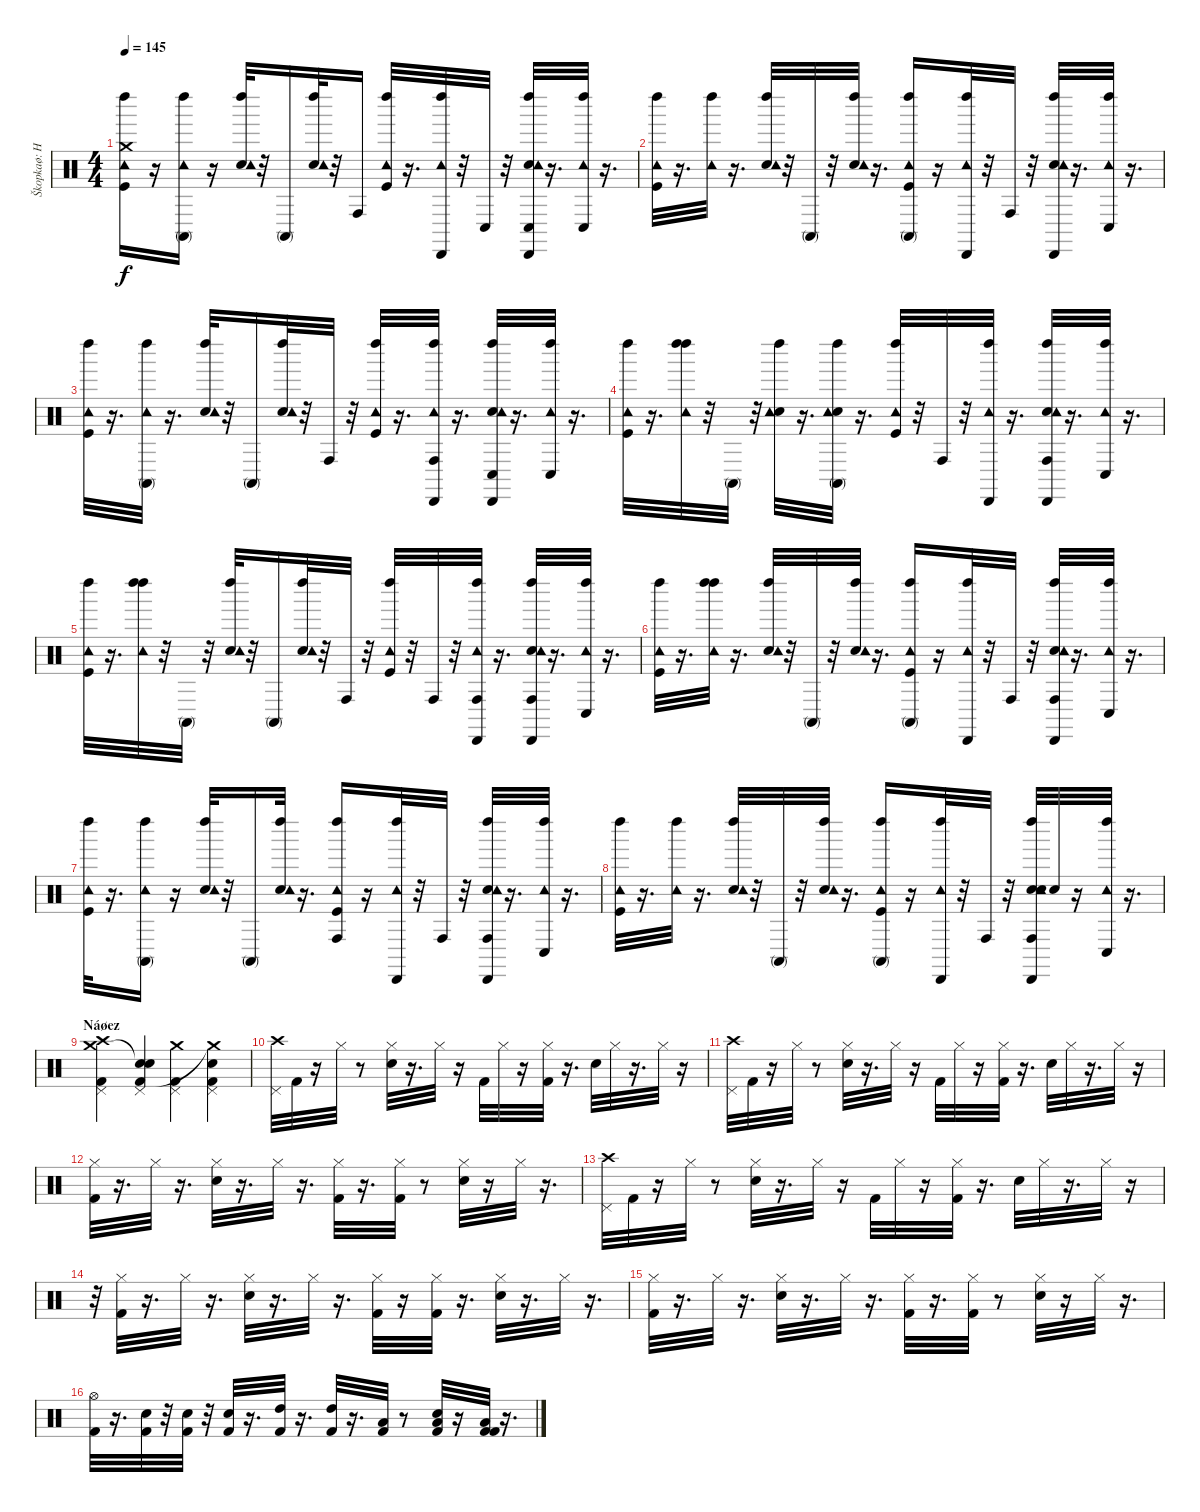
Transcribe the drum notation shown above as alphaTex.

\track ("Škopkaø: Hurvajs" "Škopkaø: H") {instrument percussion}
\staff {score}
\articulation defaults
\ts (4 4)
\tempo 145
\clef neutral
\ks c
("Crash medium (hit)" "Kick (hit)" "Tambourine (hit)" "Left Maraca (hit)").16{dy f volume 5} r.16 ("Tambourine (hit)" "Conga high (mute)" "Left Maraca (hit)").16 r.16 ("Snare (hit) 2" "Tambourine (hit)" "Left Maraca (hit)").32 r.32 "Conga high (mute)".16 ("Snare (hit) 2" "Tambourine (hit)" "Left Maraca (hit)").32 r.32 "Conga high (hit)".16 ("Kick (hit)" "Tambourine (hit)" "Left Maraca (hit)").32 r.16{d} ("Tambourine (hit)" "Cabasa (hit)" "Left Maraca (hit)").32 r.32 "Conga low (hit)".32 r.32 ("Snare (hit) 2" "Tambourine (hit)" "Conga low (hit)" "Cabasa (hit)" "Left Maraca (hit)").32 r.16{d} ("Tambourine (hit)" "Conga low (hit)" "Left Maraca (hit)").32 r.16{d} |
("Kick (hit)" "Tambourine (hit)" "Left Maraca (hit)").32 r.16{d} ("Tambourine (hit)" "Left Maraca (hit)").32 r.16{d} ("Snare (hit) 2" "Tambourine (hit)" "Left Maraca (hit)").32 r.32 "Conga high (mute)".32 r.32 ("Snare (hit) 2" "Tambourine (hit)" "Left Maraca (hit)").32 r.16{d} ("Kick (hit)" "Tambourine (hit)" "Conga high (mute)" "Left Maraca (hit)").16 r.16 ("Tambourine (hit)" "Cabasa (hit)" "Left Maraca (hit)").32 r.32 "Conga high (hit)".32 r.32 ("Snare (hit) 2" "Tambourine (hit)" "Cabasa (hit)" "Left Maraca (hit)").32 r.16{d} ("Tambourine (hit)" "Conga low (hit)" "Left Maraca (hit)").32 r.16{d} |
("Kick (hit)" "Tambourine (hit)" "Left Maraca (hit)").32 r.16{d} ("Tambourine (hit)" "Conga high (mute)" "Left Maraca (hit)").32 r.16{d} ("Snare (hit) 2" "Tambourine (hit)" "Left Maraca (hit)").32 r.32 "Conga high (mute)".16 ("Snare (hit) 2" "Tambourine (hit)" "Left Maraca (hit)").32 r.32 "Conga high (hit)".32 r.32 ("Kick (hit)" "Tambourine (hit)" "Left Maraca (hit)").32 r.16{d} ("Tambourine (hit)" "Conga high (hit)" "Cabasa (hit)" "Left Maraca (hit)").32 r.16{d} ("Snare (hit) 2" "Tambourine (hit)" "Conga low (hit)" "Cabasa (hit)" "Left Maraca (hit)").32 r.16{d} ("Tambourine (hit)" "Conga low (hit)" "Left Maraca (hit)").32 r.16{d} |
("Kick (hit)" "Tambourine (hit)" "Left Maraca (hit)").32 r.16{d} ("Tambourine (hit)" "Left Maraca (hit)" "Left Maraca (hit)").32 r.32 "Conga high (mute)".32 r.32 ("Snare (hit) 2" "Tambourine (hit)" "Left Maraca (hit)").32 r.16{d} ("Snare (hit) 2" "Tambourine (hit)" "Conga high (mute)" "Left Maraca (hit)").32 r.16{d} ("Kick (hit)" "Tambourine (hit)" "Left Maraca (hit)").32 r.32 "Conga high (hit)".32 r.32 ("Tambourine (hit)" "Cabasa (hit)" "Left Maraca (hit)").32 r.16{d} ("Snare (hit) 2" "Tambourine (hit)" "Conga high (hit)" "Cabasa (hit)" "Left Maraca (hit)").32 r.16{d} ("Tambourine (hit)" "Conga low (hit)" "Left Maraca (hit)").32 r.16{d} |
("Kick (hit)" "Tambourine (hit)" "Left Maraca (hit)").32{volume 3} r.16{d} ("Tambourine (hit)" "Left Maraca (hit)" "Left Maraca (hit)").32 r.32 "Conga high (mute)".32 r.32 ("Snare (hit) 2" "Tambourine (hit)" "Left Maraca (hit)").32 r.32 "Conga high (mute)".16 ("Snare (hit) 2" "Tambourine (hit)" "Left Maraca (hit)").32 r.32 "Conga high (hit)".32 r.32 ("Kick (hit)" "Tambourine (hit)" "Left Maraca (hit)").32 r.32 "Conga high (hit)".32 r.32 ("Tambourine (hit)" "Conga high (hit)" "Cabasa (hit)" "Left Maraca (hit)").32 r.16{d} ("Snare (hit) 2" "Tambourine (hit)" "Conga high (hit)" "Cabasa (hit)" "Left Maraca (hit)").32 r.16{d} ("Tambourine (hit)" "Conga low (hit)" "Left Maraca (hit)").32 r.16{d} |
("Kick (hit)" "Tambourine (hit)" "Left Maraca (hit)").32 r.16{d} ("Tambourine (hit)" "Left Maraca (hit)" "Left Maraca (hit)").32 r.16{d} ("Snare (hit) 2" "Tambourine (hit)" "Left Maraca (hit)").32 r.32 "Conga high (mute)".32 r.32 ("Snare (hit) 2" "Tambourine (hit)" "Left Maraca (hit)").32 r.16{d} ("Kick (hit)" "Tambourine (hit)" "Conga high (mute)" "Left Maraca (hit)").16 r.16 ("Tambourine (hit)" "Cabasa (hit)" "Left Maraca (hit)").32 r.32 "Conga high (hit)".32 r.32 ("Snare (hit) 2" "Tambourine (hit)" "Conga high (hit)" "Cabasa (hit)" "Left Maraca (hit)").32 r.16{d} ("Tambourine (hit)" "Conga low (hit)" "Left Maraca (hit)").32 r.16{d} |
("Kick (hit)" "Tambourine (hit)" "Left Maraca (hit)").32 r.16{d} ("Tambourine (hit)" "Conga high (mute)" "Left Maraca (hit)").16 r.16 ("Snare (hit) 2" "Tambourine (hit)" "Left Maraca (hit)").32 r.32 "Conga high (mute)".16 ("Snare (hit) 2" "Tambourine (hit)" "Left Maraca (hit)").32 r.16{d} ("Kick (hit)" "Tambourine (hit)" "Conga high (hit)" "Left Maraca (hit)").16 r.16 ("Tambourine (hit)" "Cabasa (hit)" "Left Maraca (hit)").32 r.32 "Conga high (hit)".32 r.32 ("Snare (hit) 2" "Tambourine (hit)" "Conga high (hit)" "Cabasa (hit)" "Left Maraca (hit)").32 r.16{d} ("Tambourine (hit)" "Conga low (hit)" "Left Maraca (hit)").32 r.16{d} |
("Kick (hit)" "Tambourine (hit)" "Left Maraca (hit)").32 r.16{d} ("Tambourine (hit)" "Left Maraca (hit)").32 r.16{d} ("Snare (hit) 2" "Tambourine (hit)" "Left Maraca (hit)").32 r.32 "Conga high (mute)".32 r.32 ("Snare (hit) 2" "Tambourine (hit)" "Left Maraca (hit)").32 r.16{d} ("Kick (hit)" "Tambourine (hit)" "Conga high (mute)" "Left Maraca (hit)").16 r.16 ("Tambourine (hit)" "Cabasa (hit)" "Left Maraca (hit)").32 r.32 "Conga high (hit)".32 r.32 ("Snare (hit) 2" "Snare (hit) 2" "Tambourine (hit)" "Conga high (hit)" "Cabasa (hit)" "Left Maraca (hit)").32 "Snare (hit) 2".32 r.16 ("Tambourine (hit)" "Conga low (hit)" "Left Maraca (hit)").32 r.16{d} |
\section ("" "Náøez")
("Crash medium (hit)" "Kick (hit) 2" "Pedal Hi-Hat (hit)" "Crash high (hit)").4{volume 16} ("Electric Snare (hit)"{t} "Pedal Hi-Hat (hit)" "Electric Snare (hit)" "Kick (hit) 2").4 ("Pedal Hi-Hat (hit)" "Kick (hit) 2" "Crash medium (hit)").4 ("Pedal Hi-Hat (hit)" "Electric Snare (hit)" "Kick (hit) 2" "Crash medium (hit)"{t}).4 |
("Pedal Hi-Hat (hit)" "Crash high (hit)").32 "Kick (hit) 2".32 r.16 "Hi-Hat (closed)".32 r.8 ("Hi-Hat (closed)" "Snare (hit) 2").32 r.16{d} "Hi-Hat (closed)".32 r.16 "Kick (hit) 2".32 "Hi-Hat (closed)".32 r.16 ("Kick (hit) 2" "Hi-Hat (closed)").32 r.16{d} "Snare (hit) 2".32 "Hi-Hat (closed)".32 r.16{d} "Hi-Hat (closed)".32 r.16 |
("Pedal Hi-Hat (hit)" "Crash high (hit)").32 "Kick (hit) 2".32 r.16 "Hi-Hat (closed)".32 r.8 ("Hi-Hat (closed)" "Snare (hit) 2").32 r.16{d} "Hi-Hat (closed)".32 r.16 "Kick (hit) 2".32 "Hi-Hat (closed)".32 r.16 ("Kick (hit) 2" "Hi-Hat (closed)").32 r.16{d} "Snare (hit) 2".32 "Hi-Hat (closed)".32 r.16{d} "Hi-Hat (closed)".32 r.16 |
("Kick (hit) 2" "Hi-Hat (closed)").32 r.16{d} "Hi-Hat (closed)".32 r.16{d} ("Hi-Hat (closed)" "Snare (hit) 2").32 r.16{d} "Hi-Hat (closed)".32 r.16{d} ("Kick (hit) 2" "Hi-Hat (closed)").32 r.16{d} ("Kick (hit) 2" "Hi-Hat (closed)").32 r.8 ("Snare (hit) 2" "Hi-Hat (closed)").32 r.16 "Hi-Hat (closed)".32 r.16{d} |
("Pedal Hi-Hat (hit)" "Crash high (hit)").32 "Kick (hit) 2".32 r.16 "Hi-Hat (closed)".32 r.8 ("Hi-Hat (closed)" "Snare (hit) 2").32 r.16{d} "Hi-Hat (closed)".32 r.16 "Kick (hit) 2".32 "Hi-Hat (closed)".32 r.16 ("Kick (hit) 2" "Hi-Hat (closed)").32 r.16{d} "Snare (hit) 2".32 "Hi-Hat (closed)".32 r.16{d} "Hi-Hat (closed)".32 r.16 |
r.32 ("Kick (hit) 2" "Hi-Hat (closed)").32 r.16{d} "Hi-Hat (closed)".32 r.16{d} ("Hi-Hat (closed)" "Snare (hit) 2").32 r.16{d} "Hi-Hat (closed)".32 r.16{d} ("Kick (hit) 2" "Hi-Hat (closed)").32 r.16 ("Kick (hit) 2" "Hi-Hat (closed)").32 r.16{d} ("Hi-Hat (closed)" "Snare (hit) 2").32 r.16{d} "Hi-Hat (closed)".32 r.16{d} |
("Kick (hit) 2" "Hi-Hat (closed)").32 r.16{d} "Hi-Hat (closed)".32 r.16{d} ("Hi-Hat (closed)" "Snare (hit) 2").32 r.16{d} "Hi-Hat (closed)".32 r.16{d} ("Kick (hit) 2" "Hi-Hat (closed)").32 r.16{d} ("Kick (hit) 2" "Hi-Hat (closed)").32 r.8 ("Snare (hit) 2" "Hi-Hat (closed)").32 r.16 "Hi-Hat (closed)".32 r.16{d} |
("Hi-Hat (open)" "Kick (hit) 2").32 r.16{d} ("Snare (hit) 2" "Kick (hit) 2").32 r.32 ("Snare (hit) 2" "Kick (hit) 2").32 r.32 ("Snare (hit) 2" "Kick (hit) 2").32 r.16{d} ("High Tom (hit)" "Kick (hit) 2").32 r.16{d} ("High Tom (hit)" "Kick (hit) 2").32 r.16{d} ("Low Tom (hit)" "Kick (hit) 2").32 r.8 ("Snare (hit) 2" "Low Tom (hit)" "Kick (hit) 2").32 r.16 ("Low Floor Tom (hit)" "Kick (hit) 2" "Kick (hit) 2").32 r.16{d}
